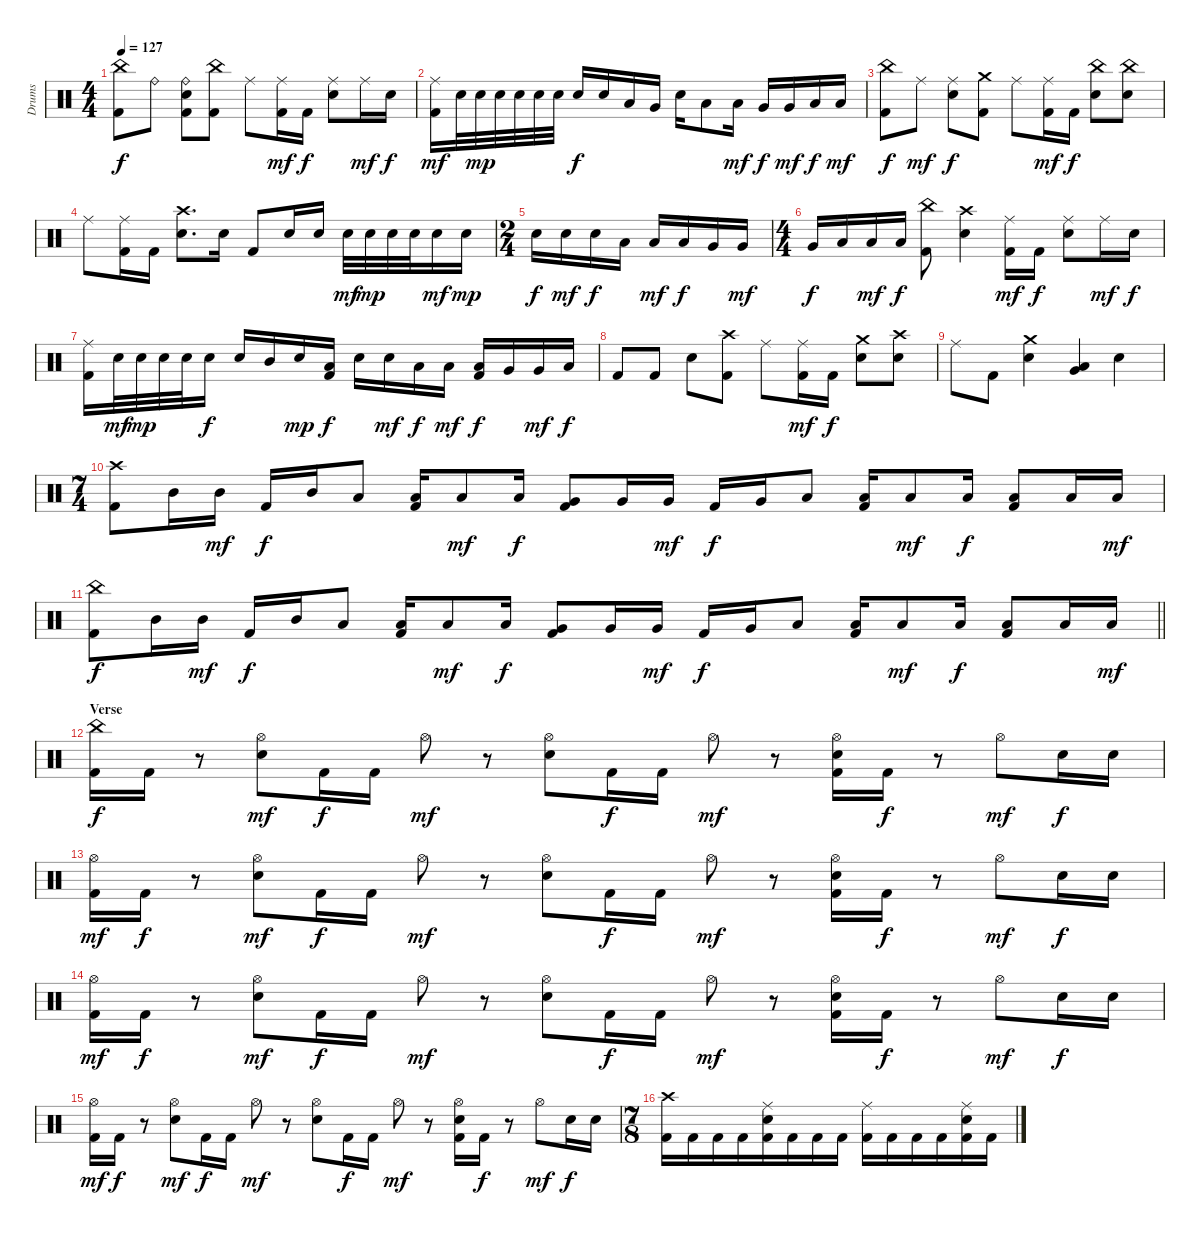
\track ("Drums" "Drums") {instrument percussion}
\staff {score}
\articulation defaults
\ts (4 4)
\tempo 127
\clef neutral
\ks c
("Kick (hit) 2" "China (hit)").8{dy f} "Ride (bell)".8 ("Kick (hit) 2" "Ride (bell)" "Electric Snare (hit)").8 ("Kick (hit) 2" "China (hit)").8 "Ride (middle)".8 ("Kick (hit) 2" "Ride (middle)").16{dy mf} "Kick (hit) 2".16{dy f} ("Ride (middle)" "Electric Snare (hit)").8 "Ride (middle)".16{dy mf} "Electric Snare (hit)".16{dy f} |
("Kick (hit) 2" "Ride (middle)").16{dy mf} "Electric Snare (hit)".32 "Electric Snare (hit)".32{dy mp} "Electric Snare (hit)".32 "Electric Snare (hit)".32 "Electric Snare (hit)".32 "Electric Snare (hit)".32 "Electric Snare (hit)".16{dy f} "Electric Snare (hit)".16 "Low Tom (hit)".16 "Very Low Tom (hit)".16 "Electric Snare (hit)".16 "Low Tom (hit)".8 "Low Tom (hit)".16{dy mf} "Very Low Tom (hit)".16{dy f} "Very Low Tom (hit)".16{dy mf} "Low Floor Tom (hit)".16{dy f} "Low Floor Tom (hit)".16{dy mf} |
("Kick (hit) 2" "China (hit)").8{dy f} "Ride (middle)".8{dy mf} ("Ride (middle)" "Electric Snare (hit)").8{dy f} ("Kick (hit) 2" "Crash medium (hit)").8 "Ride (middle)".8 ("Kick (hit) 2" "Ride (middle)").16{dy mf} "Kick (hit) 2".16{dy f} ("China (hit)" "Electric Snare (hit)").8 ("China (hit)" "Electric Snare (hit)").8 |
"Ride (middle)".8 ("Kick (hit) 2" "Ride (middle)").16 "Kick (hit) 2".16 ("Crash high (hit)" "Electric Snare (hit)").8{d} "Electric Snare (hit)".16 "Kick (hit) 2".8 "Electric Snare (hit)".16 "Electric Snare (hit)".16 "Electric Snare (hit)".32{dy mf} "Electric Snare (hit)".32{dy mp} "Electric Snare (hit)".32 "Electric Snare (hit)".32 "Electric Snare (hit)".16{dy mf} "Electric Snare (hit)".16{dy mp} |
\ts (2 4)
"Electric Snare (hit)".16{dy f} "Electric Snare (hit)".16{dy mf} "Electric Snare (hit)".16{dy f} "Low Tom (hit)".16 "Low Tom (hit)".16{dy mf} "Low Tom (hit)".16{dy f} "Very Low Tom (hit)".16 "Very Low Tom (hit)".16{dy mf} |
\ts (4 4)
"Very Low Tom (hit)".16{dy f} "Low Floor Tom (hit)".16 "Low Floor Tom (hit)".16{dy mf} "Low Floor Tom (hit)".16{dy f} ("Kick (hit) 2" "China (hit)").8 ("Crash high (hit)" "Electric Snare (hit)").4 ("Kick (hit) 2" "Ride (middle)").16{dy mf} "Kick (hit) 2".16{dy f} ("Ride (middle)" "Electric Snare (hit)").8 "Ride (middle)".16{dy mf} "Electric Snare (hit)".16{dy f} |
("Kick (hit) 2" "Ride (middle)").16 "Electric Snare (hit)".32{dy mf} "Electric Snare (hit)".32{dy mp} "Electric Snare (hit)".32 "Electric Snare (hit)".32 "Electric Snare (hit)".16{dy f} "Electric Snare (hit)".16 "Mid Tom (hit)".16 "Electric Snare (hit)".16{dy mp} ("Kick (hit) 2" "Low Tom (hit)").16{dy f} "Electric Snare (hit)".16 "Electric Snare (hit)".16{dy mf} "Low Tom (hit)".16{dy f} "Low Tom (hit)".16{dy mf} ("Kick (hit) 2" "Low Tom (hit)").16{dy f} "Very Low Tom (hit)".16 "Very Low Tom (hit)".16{dy mf} "Low Floor Tom (hit)".16{dy f} |
"Kick (hit) 2".8 "Kick (hit) 2".8 "Electric Snare (hit)".8 ("Kick (hit) 2" "Crash high (hit)").8 "Ride (middle)".8 ("Kick (hit) 2" "Ride (middle)").16{dy mf} "Kick (hit) 2".16{dy f} ("Crash medium (hit)" "Electric Snare (hit)").8 ("Crash high (hit)" "Electric Snare (hit)").8 |
"Ride (middle)".8 "Kick (hit) 2".8 ("Crash medium (hit)" "Electric Snare (hit)").4 ("Very Low Tom (hit)" "Low Tom (hit)").4 "Electric Snare (hit)".4 |
\ts (7 4)
("Kick (hit) 2" "Crash high (hit)").8 "Mid Tom (hit)".16 "Mid Tom (hit)".16{dy mf} "Kick (hit) 2".16{dy f} "Mid Tom (hit)".16 "Low Tom (hit)".8 ("Kick (hit) 2" "Low Tom (hit)").16 "Low Tom (hit)".8{dy mf} "Low Tom (hit)".16{dy f} ("Kick (hit) 2" "Very Low Tom (hit)").8 "Very Low Tom (hit)".16 "Very Low Tom (hit)".16{dy mf} "Kick (hit) 2".16{dy f} "Very Low Tom (hit)".16 "Low Floor Tom (hit)".8 ("Kick (hit) 2" "Low Floor Tom (hit)").16 "Low Floor Tom (hit)".8{dy mf} "Low Floor Tom (hit)".16{dy f} ("Kick (hit) 2" "Low Floor Tom (hit)").8 "Low Floor Tom (hit)".16 "Low Floor Tom (hit)".16{dy mf} |
\barLineRight lightlight
("Kick (hit) 2" "China (hit)").8{dy f} "Mid Tom (hit)".16 "Mid Tom (hit)".16{dy mf} "Kick (hit) 2".16{dy f} "Mid Tom (hit)".16 "Low Tom (hit)".8 ("Kick (hit) 2" "Low Tom (hit)").16 "Low Tom (hit)".8{dy mf} "Low Tom (hit)".16{dy f} ("Kick (hit) 2" "Very Low Tom (hit)").8 "Very Low Tom (hit)".16 "Very Low Tom (hit)".16{dy mf} "Kick (hit) 2".16{dy f} "Very Low Tom (hit)".16 "Low Floor Tom (hit)".8 ("Kick (hit) 2" "Low Floor Tom (hit)").16 "Low Floor Tom (hit)".8{dy mf} "Low Floor Tom (hit)".16{dy f} ("Kick (hit) 2" "Low Floor Tom (hit)").8 "Low Floor Tom (hit)".16 "Low Floor Tom (hit)".16{dy mf} |
\section ("" "Verse")
("Kick (hit) 2" "China (hit)").16{dy f} "Kick (hit) 2".16 r.8 ("Hi-Hat (open)" "Electric Snare (hit)").8{dy mf} "Kick (hit) 2".16{dy f} "Kick (hit) 2".16 "Hi-Hat (open)".8{dy mf} r.8 ("Hi-Hat (open)" "Electric Snare (hit)").8 "Kick (hit) 2".16{dy f} "Kick (hit) 2".16 "Hi-Hat (open)".8{dy mf} r.8 ("Kick (hit) 2" "Hi-Hat (open)" "Electric Snare (hit)").16 "Kick (hit) 2".16{dy f} r.8 "Hi-Hat (open)".8{dy mf} "Electric Snare (hit)".16{dy f} "Electric Snare (hit)".16 |
("Kick (hit) 2" "Hi-Hat (open)").16{dy mf} "Kick (hit) 2".16{dy f} r.8 ("Hi-Hat (open)" "Electric Snare (hit)").8{dy mf} "Kick (hit) 2".16{dy f} "Kick (hit) 2".16 "Hi-Hat (open)".8{dy mf} r.8 ("Hi-Hat (open)" "Electric Snare (hit)").8 "Kick (hit) 2".16{dy f} "Kick (hit) 2".16 "Hi-Hat (open)".8{dy mf} r.8 ("Kick (hit) 2" "Hi-Hat (open)" "Electric Snare (hit)").16 "Kick (hit) 2".16{dy f} r.8 "Hi-Hat (open)".8{dy mf} "Electric Snare (hit)".16{dy f} "Electric Snare (hit)".16 |
("Kick (hit) 2" "Hi-Hat (open)").16{dy mf} "Kick (hit) 2".16{dy f} r.8 ("Hi-Hat (open)" "Electric Snare (hit)").8{dy mf} "Kick (hit) 2".16{dy f} "Kick (hit) 2".16 "Hi-Hat (open)".8{dy mf} r.8 ("Hi-Hat (open)" "Electric Snare (hit)").8 "Kick (hit) 2".16{dy f} "Kick (hit) 2".16 "Hi-Hat (open)".8{dy mf} r.8 ("Kick (hit) 2" "Hi-Hat (open)" "Electric Snare (hit)").16 "Kick (hit) 2".16{dy f} r.8 "Hi-Hat (open)".8{dy mf} "Electric Snare (hit)".16{dy f} "Electric Snare (hit)".16 |
("Kick (hit) 2" "Hi-Hat (open)").16{dy mf} "Kick (hit) 2".16{dy f} r.8 ("Hi-Hat (open)" "Electric Snare (hit)").8{dy mf} "Kick (hit) 2".16{dy f} "Kick (hit) 2".16 "Hi-Hat (open)".8{dy mf} r.8 ("Hi-Hat (open)" "Electric Snare (hit)").8 "Kick (hit) 2".16{dy f} "Kick (hit) 2".16 "Hi-Hat (open)".8{dy mf} r.8 ("Kick (hit) 2" "Hi-Hat (open)" "Electric Snare (hit)").16 "Kick (hit) 2".16{dy f} r.8 "Hi-Hat (open)".8{dy mf} "Electric Snare (hit)".16{dy f} "Electric Snare (hit)".16 |
\ts (7 8)
("Kick (hit) 2" "Crash high (hit)").16 "Kick (hit) 2".16 "Kick (hit) 2".16 "Kick (hit) 2".16 ("Kick (hit) 2" "Ride (middle)" "Electric Snare (hit)").16 "Kick (hit) 2".16 "Kick (hit) 2".16 "Kick (hit) 2".16 ("Kick (hit) 2" "Ride (middle)").16 "Kick (hit) 2".16 "Kick (hit) 2".16 "Kick (hit) 2".16 ("Kick (hit) 2" "Ride (middle)" "Electric Snare (hit)").16 "Kick (hit) 2".16
